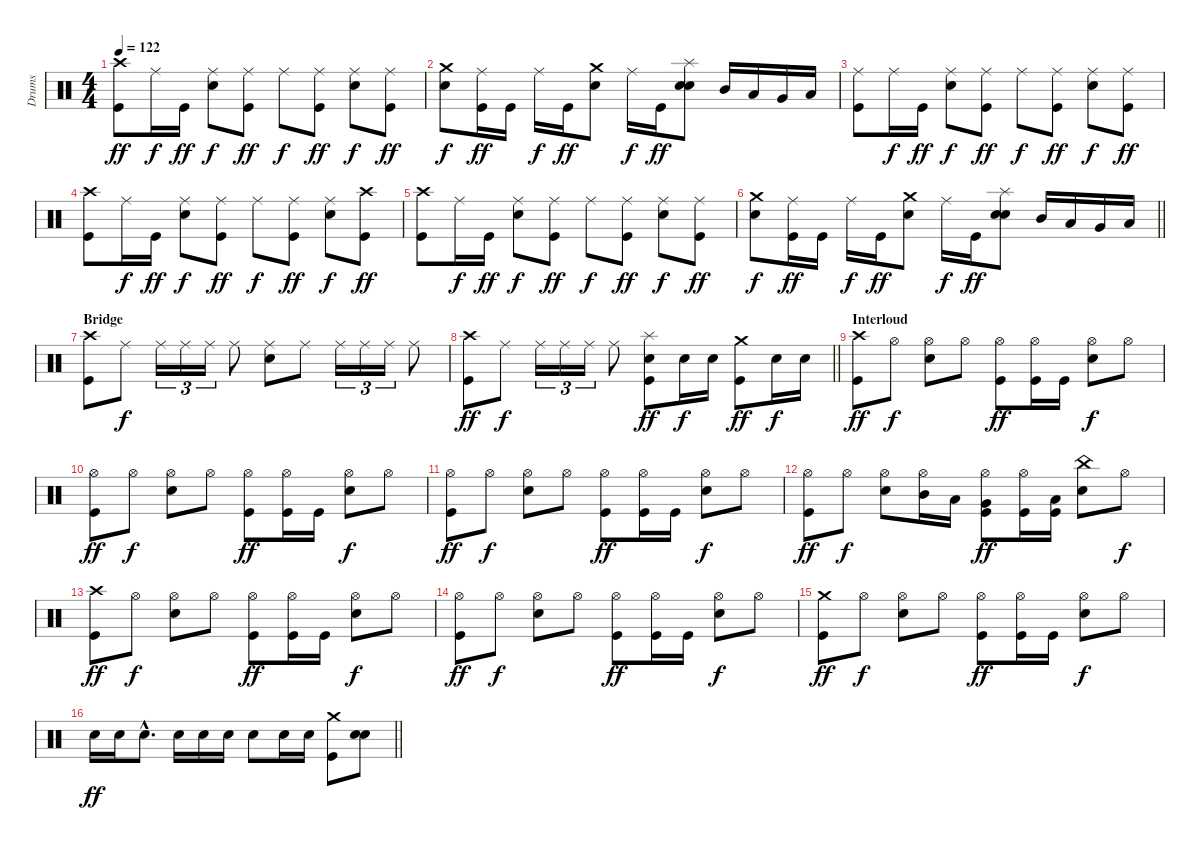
\track ("Drums" "Drums") {instrument percussion}
\staff {score}
\articulation defaults
\ts (4 4)
\tempo 122
\clef neutral
\ks c
("Crash high (hit)" "Kick (hit)").8{dy ff} "Ride (middle)".16{dy f} "Kick (hit)".16{dy ff} ("Ride (middle)" "Snare (hit) 2").8{dy f} ("Ride (middle)" "Kick (hit)").8{dy ff} "Ride (middle)".8{dy f} ("Ride (middle)" "Kick (hit)").8{dy ff} ("Ride (middle)" "Snare (hit) 2").8{dy f} ("Ride (middle)" "Kick (hit)").8{dy ff} |
("Crash medium (hit)" "Snare (hit) 2").8{dy f} ("Ride (middle)" "Kick (hit)").16{dy ff} "Kick (hit)".16 "Ride (middle)".16{dy f} "Kick (hit)".16{dy ff} ("Crash medium (hit)" "Snare (hit) 2").8 "Ride (middle)".16{dy f} "Kick (hit)".16{dy ff} ("Splash (hit)" "Snare (hit) 2" "Snare (hit) 2").8 "Mid Tom (hit)".16 "Low Tom (hit)".16 "Very Low Tom (hit)".16 "Low Tom (hit)".16 |
("Ride (middle)" "Kick (hit)").8 "Ride (middle)".16{dy f} "Kick (hit)".16{dy ff} ("Ride (middle)" "Snare (hit) 2").8{dy f} ("Ride (middle)" "Kick (hit)").8{dy ff} "Ride (middle)".8{dy f} ("Ride (middle)" "Kick (hit)").8{dy ff} ("Ride (middle)" "Snare (hit) 2").8{dy f} ("Ride (middle)" "Kick (hit)").8{dy ff} |
("Crash high (hit)" "Kick (hit)").8 "Ride (middle)".16{dy f} "Kick (hit)".16{dy ff} ("Ride (middle)" "Snare (hit) 2").8{dy f} ("Ride (middle)" "Kick (hit)").8{dy ff} "Ride (middle)".8{dy f} ("Ride (middle)" "Kick (hit)").8{dy ff} ("Ride (middle)" "Snare (hit) 2").8{dy f} ("Crash high (hit)" "Kick (hit)").8{dy ff} |
("Crash high (hit)" "Kick (hit)").8 "Ride (middle)".16{dy f} "Kick (hit)".16{dy ff} ("Ride (middle)" "Snare (hit) 2").8{dy f} ("Ride (middle)" "Kick (hit)").8{dy ff} "Ride (middle)".8{dy f} ("Ride (middle)" "Kick (hit)").8{dy ff} ("Ride (middle)" "Snare (hit) 2").8{dy f} ("Ride (middle)" "Kick (hit)").8{dy ff} |
\barLineRight lightlight
("Crash medium (hit)" "Snare (hit) 2").8{dy f} ("Ride (middle)" "Kick (hit)").16{dy ff} "Kick (hit)".16 "Ride (middle)".16{dy f} "Kick (hit)".16{dy ff} ("Crash medium (hit)" "Snare (hit) 2").8 "Ride (middle)".16{dy f} "Kick (hit)".16{dy ff} ("Splash (hit)" "Snare (hit) 2" "Snare (hit) 2").8 "Mid Tom (hit)".16 "Low Tom (hit)".16 "Very Low Tom (hit)".16 "Low Tom (hit)".16 |
\section ("" "Bridge")
("Crash high (hit)" "Kick (hit)").8 "Ride (middle)".8{dy f} "Ride (middle)".16{tu (3 2)} "Ride (middle)".16{tu (3 2)} "Ride (middle)".16{tu (3 2)} "Ride (middle)".8 ("Ride (middle)" "Snare (hit) 2").8 "Ride (middle)".8 "Ride (middle)".16{tu (3 2)} "Ride (middle)".16{tu (3 2)} "Ride (middle)".16{tu (3 2)} "Ride (middle)".8 |
\barLineRight lightlight
("Crash high (hit)" "Kick (hit)").8{dy ff} "Ride (middle)".8{dy f} "Ride (middle)".16{tu (3 2)} "Ride (middle)".16{tu (3 2)} "Ride (middle)".16{tu (3 2)} "Ride (middle)".8 ("Splash (hit)" "Snare (hit) 2" "Kick (hit)").8{dy ff} "Snare (hit) 2".16{dy f} "Snare (hit) 2".16 ("Crash medium (hit)" "Kick (hit)").8{dy ff} "Snare (hit) 2".16{dy f} "Snare (hit) 2".16 |
\section ("" "Interloud")
("Crash high (hit)" "Kick (hit)").8{dy ff} "Hi-Hat (open)".8{dy f} ("Hi-Hat (open)" "Snare (hit) 2").8 "Hi-Hat (open)".8 ("Hi-Hat (open)" "Kick (hit)").8{dy ff} ("Hi-Hat (open)" "Kick (hit)").16 "Kick (hit)".16 ("Hi-Hat (open)" "Snare (hit) 2").8{dy f} "Hi-Hat (open)".8 |
("Hi-Hat (open)" "Kick (hit)").8{dy ff} "Hi-Hat (open)".8{dy f} ("Hi-Hat (open)" "Snare (hit) 2").8 "Hi-Hat (open)".8 ("Hi-Hat (open)" "Kick (hit)").8{dy ff} ("Hi-Hat (open)" "Kick (hit)").16 "Kick (hit)".16 ("Hi-Hat (open)" "Snare (hit) 2").8{dy f} "Hi-Hat (open)".8 |
("Hi-Hat (open)" "Kick (hit)").8{dy ff} "Hi-Hat (open)".8{dy f} ("Hi-Hat (open)" "Snare (hit) 2").8 "Hi-Hat (open)".8 ("Hi-Hat (open)" "Kick (hit)").8{dy ff} ("Hi-Hat (open)" "Kick (hit)").16 "Kick (hit)".16 ("Hi-Hat (open)" "Snare (hit) 2").8{dy f} "Hi-Hat (open)".8 |
("Hi-Hat (open)" "Kick (hit)").8{dy ff} "Hi-Hat (open)".8{dy f} ("Hi-Hat (open)" "Snare (hit) 2").8 ("Hi-Hat (open)" "Mid Tom (hit)").16 "Low Tom (hit)".16 ("Hi-Hat (open)" "Very Low Tom (hit)" "Kick (hit)").8{dy ff} ("Hi-Hat (open)" "Kick (hit)").16 ("Low Floor Tom (hit)" "Kick (hit)").16 ("China (hit)" "Snare (hit) 2").8 "Hi-Hat (open)".8{dy f} |
("Crash high (hit)" "Kick (hit)").8{dy ff} "Hi-Hat (open)".8{dy f} ("Hi-Hat (open)" "Snare (hit) 2").8 "Hi-Hat (open)".8 ("Hi-Hat (open)" "Kick (hit)").8{dy ff} ("Hi-Hat (open)" "Kick (hit)").16 "Kick (hit)".16 ("Hi-Hat (open)" "Snare (hit) 2").8{dy f} "Hi-Hat (open)".8 |
("Hi-Hat (open)" "Kick (hit)").8{dy ff} "Hi-Hat (open)".8{dy f} ("Hi-Hat (open)" "Snare (hit) 2").8 "Hi-Hat (open)".8 ("Hi-Hat (open)" "Kick (hit)").8{dy ff} ("Hi-Hat (open)" "Kick (hit)").16 "Kick (hit)".16 ("Hi-Hat (open)" "Snare (hit) 2").8{dy f} "Hi-Hat (open)".8 |
("Crash medium (hit)" "Kick (hit)").8{dy ff} "Hi-Hat (open)".8{dy f} ("Hi-Hat (open)" "Snare (hit) 2").8 "Hi-Hat (open)".8 ("Hi-Hat (open)" "Kick (hit)").8{dy ff} ("Hi-Hat (open)" "Kick (hit)").16 "Kick (hit)".16 ("Hi-Hat (open)" "Snare (hit) 2").8{dy f} "Hi-Hat (open)".8 |
\barLineRight lightlight "Snare (hit) 2".16{dy ff} "Snare (hit) 2".16 "Snare (hit) 2"{hac}.8{d} "Snare (hit) 2".16 "Snare (hit) 2".16 "Snare (hit) 2".16 "Snare (hit) 2".8 "Snare (hit) 2".16 "Snare (hit) 2".16
("Crash medium (hit)" "Kick (hit)").8 ("Snare (hit) 2" "Snare (hit) 2").8
